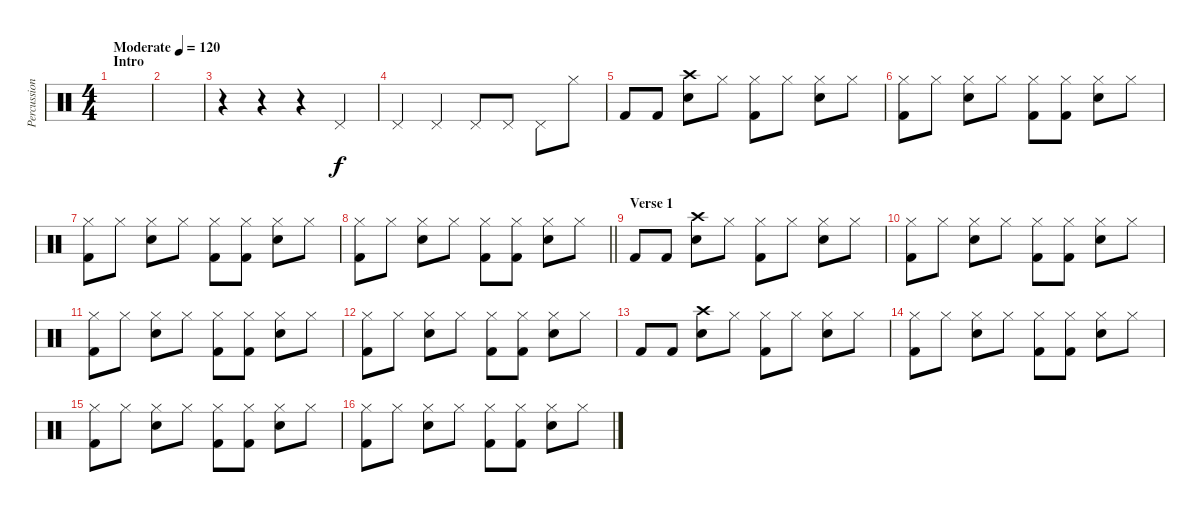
\track ("Percussion" "Percussion") {instrument percussion}
\staff {score}
\articulation defaults
\ts (4 4)
\section ("" "Intro")
\tempo (120 "Moderate")
\clef neutral
\ks c
|
|
r.4 r.4 r.4 "Pedal Hi-Hat (hit)".4 |
"Pedal Hi-Hat (hit)".4 "Pedal Hi-Hat (hit)".4 "Pedal Hi-Hat (hit)".8 "Pedal Hi-Hat (hit)".8 "Pedal Hi-Hat (hit)".8 "Hi-Hat (closed)".8 |
"Kick (hit) 2".8 "Kick (hit) 2".8 ("Crash high (hit)" "Snare (hit) 2").8 "Hi-Hat (closed)".8 ("Hi-Hat (closed)" "Kick (hit) 2").8 "Hi-Hat (closed)".8 ("Hi-Hat (closed)" "Snare (hit) 2").8 "Hi-Hat (closed)".8 |
("Hi-Hat (closed)" "Kick (hit) 2").8 "Hi-Hat (closed)".8 ("Hi-Hat (closed)" "Snare (hit) 2").8 "Hi-Hat (closed)".8 ("Hi-Hat (closed)" "Kick (hit) 2").8 ("Hi-Hat (closed)" "Kick (hit) 2").8 ("Hi-Hat (closed)" "Snare (hit) 2").8 "Hi-Hat (closed)".8 |
("Hi-Hat (closed)" "Kick (hit) 2").8 "Hi-Hat (closed)".8 ("Hi-Hat (closed)" "Snare (hit) 2").8 "Hi-Hat (closed)".8 ("Hi-Hat (closed)" "Kick (hit) 2").8 ("Hi-Hat (closed)" "Kick (hit) 2").8 ("Hi-Hat (closed)" "Snare (hit) 2").8 "Hi-Hat (closed)".8 |
\barLineRight lightlight
("Hi-Hat (closed)" "Kick (hit) 2").8 "Hi-Hat (closed)".8 ("Hi-Hat (closed)" "Snare (hit) 2").8 "Hi-Hat (closed)".8 ("Hi-Hat (closed)" "Kick (hit) 2").8 ("Hi-Hat (closed)" "Kick (hit) 2").8 ("Hi-Hat (closed)" "Snare (hit) 2").8 "Hi-Hat (closed)".8 |
\section ("" "Verse 1")
"Kick (hit) 2".8 "Kick (hit) 2".8 ("Crash high (hit)" "Snare (hit) 2").8 "Hi-Hat (closed)".8 ("Hi-Hat (closed)" "Kick (hit) 2").8 "Hi-Hat (closed)".8 ("Hi-Hat (closed)" "Snare (hit) 2").8 "Hi-Hat (closed)".8 |
("Hi-Hat (closed)" "Kick (hit) 2").8 "Hi-Hat (closed)".8 ("Hi-Hat (closed)" "Snare (hit) 2").8 "Hi-Hat (closed)".8 ("Hi-Hat (closed)" "Kick (hit) 2").8 ("Hi-Hat (closed)" "Kick (hit) 2").8 ("Hi-Hat (closed)" "Snare (hit) 2").8 "Hi-Hat (closed)".8 |
("Hi-Hat (closed)" "Kick (hit) 2").8 "Hi-Hat (closed)".8 ("Hi-Hat (closed)" "Snare (hit) 2").8 "Hi-Hat (closed)".8 ("Hi-Hat (closed)" "Kick (hit) 2").8 ("Hi-Hat (closed)" "Kick (hit) 2").8 ("Hi-Hat (closed)" "Snare (hit) 2").8 "Hi-Hat (closed)".8 |
("Hi-Hat (closed)" "Kick (hit) 2").8 "Hi-Hat (closed)".8 ("Hi-Hat (closed)" "Snare (hit) 2").8 "Hi-Hat (closed)".8 ("Hi-Hat (closed)" "Kick (hit) 2").8 ("Hi-Hat (closed)" "Kick (hit) 2").8 ("Hi-Hat (closed)" "Snare (hit) 2").8 "Hi-Hat (closed)".8 |
"Kick (hit) 2".8 "Kick (hit) 2".8 ("Crash high (hit)" "Snare (hit) 2").8 "Hi-Hat (closed)".8 ("Hi-Hat (closed)" "Kick (hit) 2").8 "Hi-Hat (closed)".8 ("Hi-Hat (closed)" "Snare (hit) 2").8 "Hi-Hat (closed)".8 |
("Hi-Hat (closed)" "Kick (hit) 2").8 "Hi-Hat (closed)".8 ("Hi-Hat (closed)" "Snare (hit) 2").8 "Hi-Hat (closed)".8 ("Hi-Hat (closed)" "Kick (hit) 2").8 ("Hi-Hat (closed)" "Kick (hit) 2").8 ("Hi-Hat (closed)" "Snare (hit) 2").8 "Hi-Hat (closed)".8 |
("Hi-Hat (closed)" "Kick (hit) 2").8 "Hi-Hat (closed)".8 ("Hi-Hat (closed)" "Snare (hit) 2").8 "Hi-Hat (closed)".8 ("Hi-Hat (closed)" "Kick (hit) 2").8 ("Hi-Hat (closed)" "Kick (hit) 2").8 ("Hi-Hat (closed)" "Snare (hit) 2").8 "Hi-Hat (closed)".8 |
("Hi-Hat (closed)" "Kick (hit) 2").8 "Hi-Hat (closed)".8 ("Hi-Hat (closed)" "Snare (hit) 2").8 "Hi-Hat (closed)".8 ("Hi-Hat (closed)" "Kick (hit) 2").8 ("Hi-Hat (closed)" "Kick (hit) 2").8 ("Hi-Hat (closed)" "Snare (hit) 2").8 "Hi-Hat (closed)".8
